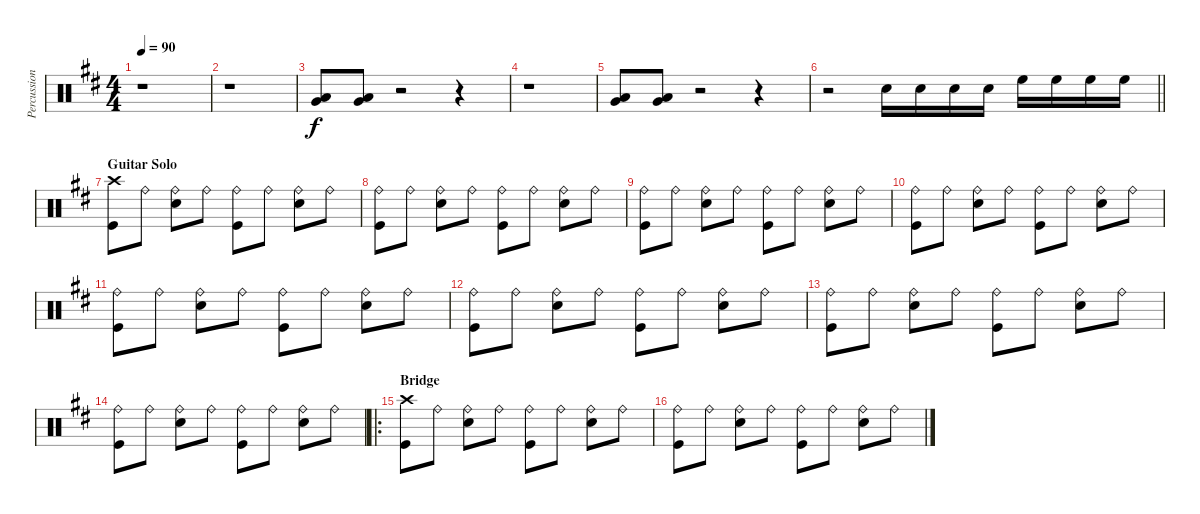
\track ("Percussion" "Percussion") {instrument percussion}
\staff {score}
\articulation defaults
\ts (4 4)
\tempo 90
\clef neutral
\ks d
r.1{dy f} |
r.1 |
("Very Low Tom (hit)" "Low Floor Tom (hit)").8 ("Very Low Tom (hit)" "Low Floor Tom (hit)").8 r.2 r.4 |
r.1 |
("Very Low Tom (hit)" "Low Floor Tom (hit)").8 ("Very Low Tom (hit)" "Low Floor Tom (hit)").8 r.2 r.4 |
\barLineRight lightlight
r.2 "Snare (hit) 2".16 "Snare (hit) 2".16 "Snare (hit) 2".16 "Snare (hit) 2".16 "High Floor Tom (hit)".16 "High Floor Tom (hit)".16 "High Floor Tom (hit)".16 "High Floor Tom (hit)".16 |
\section ("" "Guitar Solo")
("Crash high (hit)" "Kick (hit)").8 "Ride (bell)".8 ("Ride (bell)" "Snare (hit) 2").8 "Ride (bell)".8 ("Ride (bell)" "Kick (hit)").8 "Ride (bell)".8 ("Ride (bell)" "Snare (hit) 2").8 "Ride (bell)".8 |
("Ride (bell)" "Kick (hit)").8 "Ride (bell)".8 ("Ride (bell)" "Snare (hit) 2").8 "Ride (bell)".8 ("Ride (bell)" "Kick (hit)").8 "Ride (bell)".8 ("Ride (bell)" "Snare (hit) 2").8 "Ride (bell)".8 |
("Ride (bell)" "Kick (hit)").8 "Ride (bell)".8 ("Ride (bell)" "Snare (hit) 2").8 "Ride (bell)".8 ("Ride (bell)" "Kick (hit)").8 "Ride (bell)".8 ("Ride (bell)" "Snare (hit) 2").8 "Ride (bell)".8 |
("Ride (bell)" "Kick (hit)").8 "Ride (bell)".8 ("Ride (bell)" "Snare (hit) 2").8 "Ride (bell)".8 ("Ride (bell)" "Kick (hit)").8 "Ride (bell)".8 ("Ride (bell)" "Snare (hit) 2").8 "Ride (bell)".8 |
("Ride (bell)" "Kick (hit)").8 "Ride (bell)".8 ("Ride (bell)" "Snare (hit) 2").8 "Ride (bell)".8 ("Ride (bell)" "Kick (hit)").8 "Ride (bell)".8 ("Ride (bell)" "Snare (hit) 2").8 "Ride (bell)".8 |
("Ride (bell)" "Kick (hit)").8 "Ride (bell)".8 ("Ride (bell)" "Snare (hit) 2").8 "Ride (bell)".8 ("Ride (bell)" "Kick (hit)").8 "Ride (bell)".8 ("Ride (bell)" "Snare (hit) 2").8 "Ride (bell)".8 |
("Ride (bell)" "Kick (hit)").8 "Ride (bell)".8 ("Ride (bell)" "Snare (hit) 2").8 "Ride (bell)".8 ("Ride (bell)" "Kick (hit)").8 "Ride (bell)".8 ("Ride (bell)" "Snare (hit) 2").8 "Ride (bell)".8 |
("Ride (bell)" "Kick (hit)").8 "Ride (bell)".8 ("Ride (bell)" "Snare (hit) 2").8 "Ride (bell)".8 ("Ride (bell)" "Kick (hit)").8 "Ride (bell)".8 ("Ride (bell)" "Snare (hit) 2").8 "Ride (bell)".8 |
\ro
\section ("" "Bridge")
("Crash high (hit)" "Kick (hit)").8 "Ride (bell)".8 ("Ride (bell)" "Snare (hit) 2").8 "Ride (bell)".8 ("Ride (bell)" "Kick (hit)").8 "Ride (bell)".8 ("Ride (bell)" "Snare (hit) 2").8 "Ride (bell)".8 |
("Ride (bell)" "Kick (hit)").8 "Ride (bell)".8 ("Ride (bell)" "Snare (hit) 2").8 "Ride (bell)".8 ("Ride (bell)" "Kick (hit)").8 "Ride (bell)".8 ("Ride (bell)" "Snare (hit) 2").8 "Ride (bell)".8
